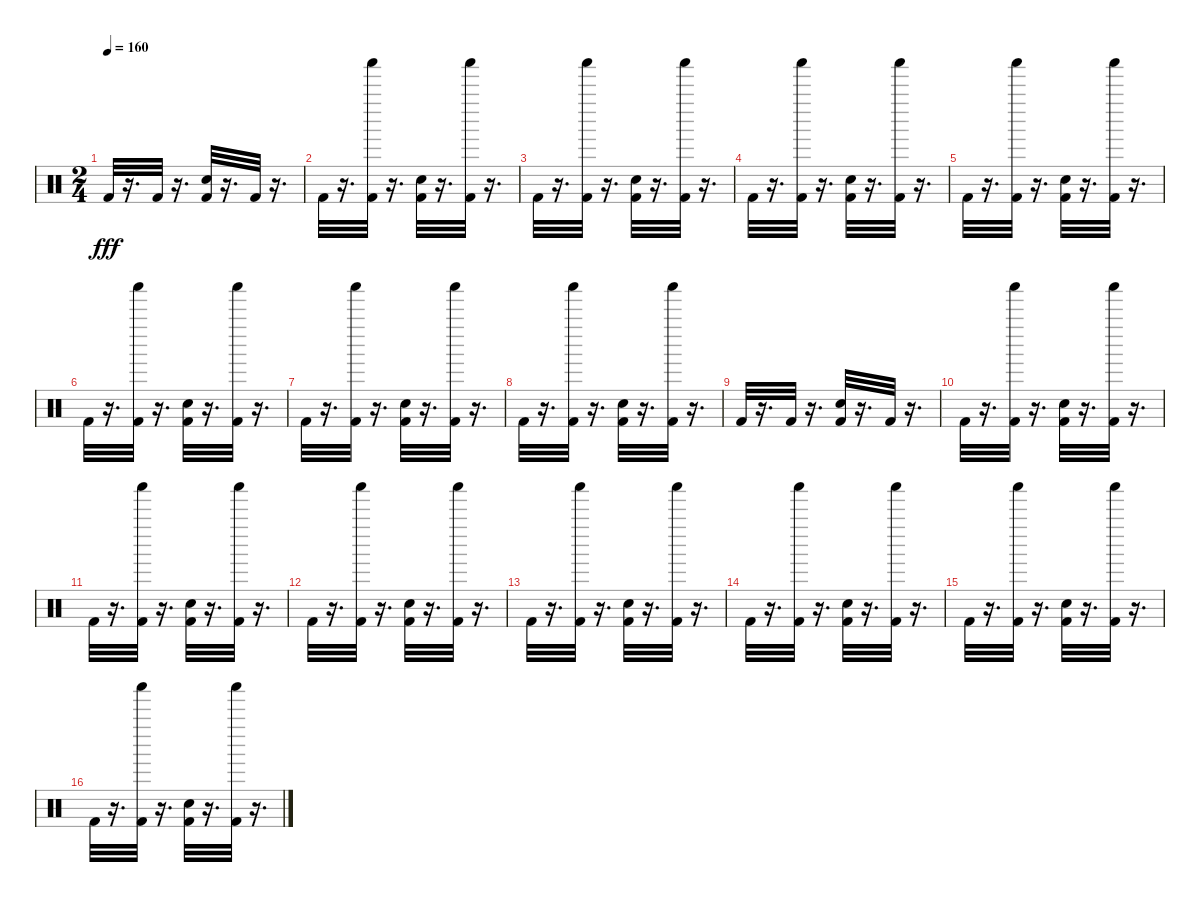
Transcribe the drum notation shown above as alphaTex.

\track "" {instrument percussion}
\staff {score}
\articulation defaults
\ts (2 4)
\tempo 160
\clef neutral
\ks c "Kick (hit) 2".32{dy fff}
r.16{d} "Kick (hit) 2".32 r.16{d} ("Kick (hit) 2" "Snare (hit) 2").32 r.16{d} "Kick (hit) 2".32 r.16{d} |
"Kick (hit) 2".32 r.16{d} ("Shaker (hit)" "Kick (hit) 2").32 r.16{d} ("Kick (hit) 2" "Snare (hit) 2").32 r.16{d} ("Shaker (hit)" "Kick (hit) 2").32 r.16{d} |
"Kick (hit) 2".32 r.16{d} ("Shaker (hit)" "Kick (hit) 2").32 r.16{d} ("Snare (hit) 2" "Kick (hit) 2").32 r.16{d} ("Shaker (hit)" "Kick (hit) 2").32 r.16{d} |
"Kick (hit) 2".32 r.16{d} ("Shaker (hit)" "Kick (hit) 2").32 r.16{d} ("Kick (hit) 2" "Snare (hit) 2").32 r.16{d} ("Shaker (hit)" "Kick (hit) 2").32 r.16{d} |
"Kick (hit) 2".32 r.16{d} ("Shaker (hit)" "Kick (hit) 2").32 r.16{d} ("Kick (hit) 2" "Snare (hit) 2").32 r.16{d} ("Shaker (hit)" "Kick (hit) 2").32 r.16{d} |
"Kick (hit) 2".32 r.16{d} ("Shaker (hit)" "Kick (hit) 2").32 r.16{d} ("Kick (hit) 2" "Snare (hit) 2").32 r.16{d} ("Shaker (hit)" "Kick (hit) 2").32 r.16{d} |
"Kick (hit) 2".32 r.16{d} ("Shaker (hit)" "Kick (hit) 2").32 r.16{d} ("Kick (hit) 2" "Snare (hit) 2").32 r.16{d} ("Shaker (hit)" "Kick (hit) 2").32 r.16{d} |
"Kick (hit) 2".32 r.16{d} ("Shaker (hit)" "Kick (hit) 2").32 r.16{d} ("Kick (hit) 2" "Snare (hit) 2").32 r.16{d} ("Shaker (hit)" "Kick (hit) 2").32 r.16{d} |
"Kick (hit) 2".32 r.16{d} "Kick (hit) 2".32 r.16{d} ("Kick (hit) 2" "Snare (hit) 2").32 r.16{d} "Kick (hit) 2".32 r.16{d} |
"Kick (hit) 2".32 r.16{d} ("Shaker (hit)" "Kick (hit) 2").32 r.16{d} ("Kick (hit) 2" "Snare (hit) 2").32 r.16{d} ("Shaker (hit)" "Kick (hit) 2").32 r.16{d} |
"Kick (hit) 2".32 r.16{d} ("Shaker (hit)" "Kick (hit) 2").32 r.16{d} ("Snare (hit) 2" "Kick (hit) 2").32 r.16{d} ("Shaker (hit)" "Kick (hit) 2").32 r.16{d} |
"Kick (hit) 2".32 r.16{d} ("Shaker (hit)" "Kick (hit) 2").32 r.16{d} ("Kick (hit) 2" "Snare (hit) 2").32 r.16{d} ("Shaker (hit)" "Kick (hit) 2").32 r.16{d} |
"Kick (hit) 2".32 r.16{d} ("Shaker (hit)" "Kick (hit) 2").32 r.16{d} ("Kick (hit) 2" "Snare (hit) 2").32 r.16{d} ("Shaker (hit)" "Kick (hit) 2").32 r.16{d} |
"Kick (hit) 2".32 r.16{d} ("Shaker (hit)" "Kick (hit) 2").32 r.16{d} ("Kick (hit) 2" "Snare (hit) 2").32 r.16{d} ("Shaker (hit)" "Kick (hit) 2").32 r.16{d} |
"Kick (hit) 2".32 r.16{d} ("Shaker (hit)" "Kick (hit) 2").32 r.16{d} ("Kick (hit) 2" "Snare (hit) 2").32 r.16{d} ("Shaker (hit)" "Kick (hit) 2").32 r.16{d} |
"Kick (hit) 2".32 r.16{d} ("Shaker (hit)" "Kick (hit) 2").32 r.16{d} ("Kick (hit) 2" "Snare (hit) 2").32 r.16{d} ("Shaker (hit)" "Kick (hit) 2").32 r.16{d}
